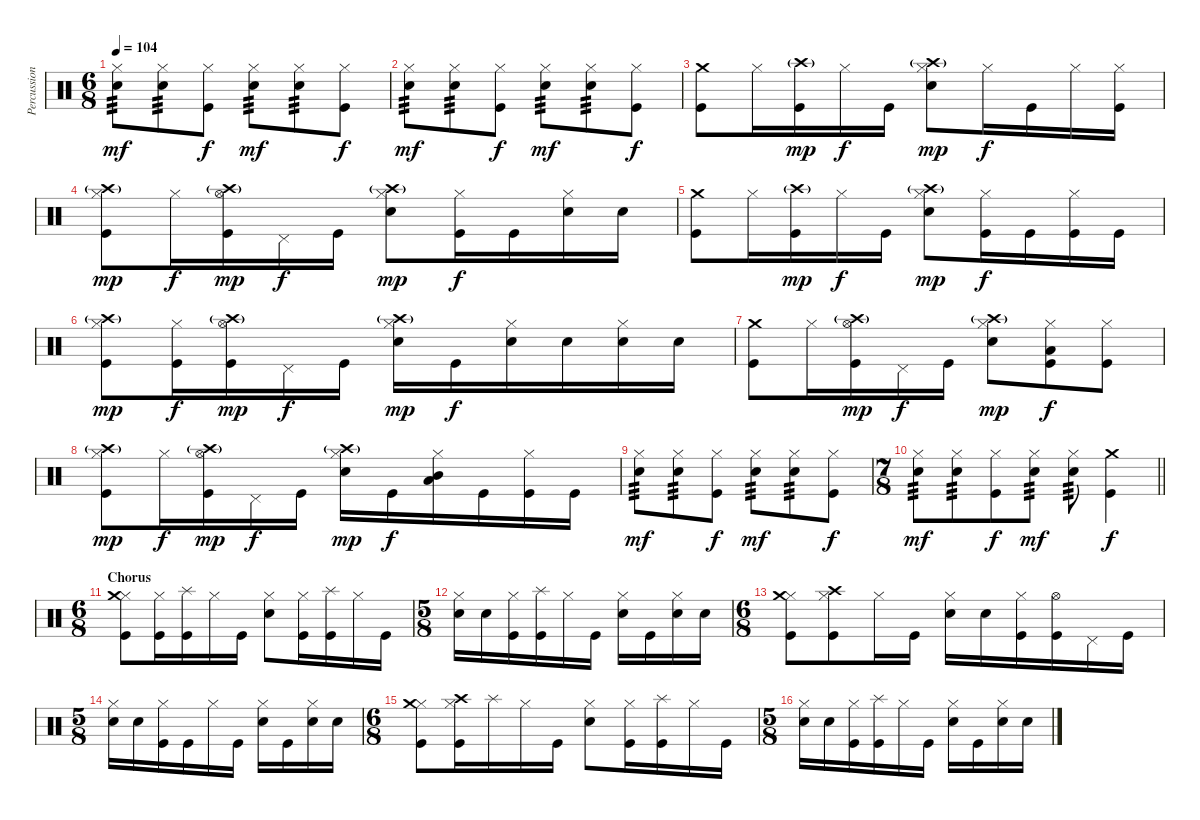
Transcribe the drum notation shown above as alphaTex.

\track ("Percussion" "Percussion") {instrument percussion}
\staff {score}
\articulation defaults
\ts (6 8)
\tempo 104
\clef neutral
\ks c
("Hi-Hat (closed)" "Snare (hit) 2").8{tp 3 dy mf} ("Hi-Hat (closed)" "Snare (hit) 2").8{tp 3} ("Hi-Hat (closed)" "Kick (hit)").8{dy f} ("Hi-Hat (closed)" "Snare (hit) 2").8{tp 3 dy mf} ("Hi-Hat (closed)" "Snare (hit) 2").8{tp 3} ("Hi-Hat (closed)" "Kick (hit)").8{dy f} |
("Hi-Hat (closed)" "Snare (hit) 2").8{tp 3 dy mf} ("Hi-Hat (closed)" "Snare (hit) 2").8{tp 3} ("Hi-Hat (closed)" "Kick (hit)").8{dy f} ("Hi-Hat (closed)" "Snare (hit) 2").8{tp 3 dy mf} ("Hi-Hat (closed)" "Snare (hit) 2").8{tp 3} ("Hi-Hat (closed)" "Kick (hit)").8{dy f} |
("Crash medium (hit)" "Kick (hit)").8 "Hi-Hat (closed)".16 ("Crash high (hit)"{g} "Kick (hit)").16{dy mp} "Hi-Hat (closed)".16{dy f} "Kick (hit)".16 ("Hi-Hat (closed)" "Crash high (hit)"{g} "Snare (hit) 2").8{dy mp} "Hi-Hat (closed)".16{dy f} "Kick (hit)".16 "Hi-Hat (closed)".16 ("Hi-Hat (closed)" "Kick (hit)").16 |
("Hi-Hat (closed)" "Crash high (hit)"{g} "Kick (hit)").8{dy mp} "Hi-Hat (closed)".16{dy f} ("Hi-Hat (open)" "Crash high (hit)"{g} "Kick (hit)").16{dy mp} "Pedal Hi-Hat (hit)".16{dy f} "Kick (hit)".16 ("Hi-Hat (closed)" "Crash high (hit)"{g} "Snare (hit) 2").8{dy mp} ("Hi-Hat (closed)" "Kick (hit)").16{dy f} "Kick (hit)".16 ("Hi-Hat (closed)" "Snare (hit) 2").16 "Snare (hit) 2".16 |
("Crash medium (hit)" "Kick (hit)").8 "Hi-Hat (closed)".16 ("Crash high (hit)"{g} "Kick (hit)").16{dy mp} "Hi-Hat (closed)".16{dy f} "Kick (hit)".16 ("Hi-Hat (closed)" "Crash high (hit)"{g} "Snare (hit) 2").8{dy mp} ("Hi-Hat (closed)" "Kick (hit)").16{dy f} "Kick (hit)".16 ("Hi-Hat (closed)" "Kick (hit)").16 "Kick (hit)".16 |
("Hi-Hat (closed)" "Crash high (hit)"{g} "Kick (hit)").8{dy mp} ("Hi-Hat (closed)" "Kick (hit)").16{dy f} ("Hi-Hat (open)" "Crash high (hit)"{g} "Kick (hit)").16{dy mp} "Pedal Hi-Hat (hit)".16{dy f} "Kick (hit)".16 ("Hi-Hat (closed)" "Crash high (hit)"{g} "Snare (hit) 2").16{dy mp} "Kick (hit)".16{dy f} ("Hi-Hat (closed)" "Snare (hit) 2").16 "Snare (hit) 2".16 ("Hi-Hat (closed)" "Snare (hit) 2").16 "Snare (hit) 2".16 |
("Crash medium (hit)" "Kick (hit)").8 "Hi-Hat (closed)".16 ("Hi-Hat (open)" "Crash high (hit)"{g} "Kick (hit)").16{dy mp} "Pedal Hi-Hat (hit)".16{dy f} "Kick (hit)".16 ("Hi-Hat (closed)" "Crash high (hit)"{g} "Snare (hit) 2").8{dy mp} ("Hi-Hat (closed)" "Low Floor Tom (hit)" "Kick (hit)").8{dy f} ("Hi-Hat (closed)" "Kick (hit)").8 |
("Hi-Hat (closed)" "Crash high (hit)"{g} "Kick (hit)").8{dy mp} "Hi-Hat (closed)".16{dy f} ("Hi-Hat (open)" "Crash high (hit)"{g} "Kick (hit)").16{dy mp} "Pedal Hi-Hat (hit)".16{dy f} "Kick (hit)".16 ("Hi-Hat (closed)" "Crash high (hit)"{g} "Snare (hit) 2").16{dy mp} "Kick (hit)".16{dy f} ("Hi-Hat (closed)" "Mid Tom (hit)" "Low Tom (hit)").16 "Kick (hit)".16 ("Hi-Hat (closed)" "Kick (hit)").16 "Kick (hit)".16 |
("Hi-Hat (closed)" "Snare (hit) 2").8{tp 3 dy mf} ("Hi-Hat (closed)" "Snare (hit) 2").8{tp 3} ("Hi-Hat (closed)" "Kick (hit)").8{dy f} ("Hi-Hat (closed)" "Snare (hit) 2").8{tp 3 dy mf} ("Hi-Hat (closed)" "Snare (hit) 2").8{tp 3} ("Hi-Hat (closed)" "Kick (hit)").8{dy f} |
\ts (7 8)
\barLineRight lightlight
("Hi-Hat (closed)" "Snare (hit) 2").8{tp 3 dy mf} ("Hi-Hat (closed)" "Snare (hit) 2").8{tp 3} ("Hi-Hat (closed)" "Kick (hit)").8{dy f} ("Hi-Hat (closed)" "Snare (hit) 2").8{tp 3 dy mf} ("Hi-Hat (closed)" "Snare (hit) 2").8{tp 3} ("Crash medium (hit)" "Kick (hit)").4{dy f} |
\ts (6 8)
\section ("" "Chorus")
("Hi-Hat (closed)" "Crash medium (hit)" "Kick (hit)").8 ("Hi-Hat (closed)" "Kick (hit)").16 ("Splash (hit)" "Kick (hit)").16 "Hi-Hat (closed)".16 "Kick (hit)".16 ("Hi-Hat (closed)" "Snare (hit) 2").8 ("Hi-Hat (closed)" "Kick (hit)").16 ("Splash (hit)" "Kick (hit)").16 "Hi-Hat (closed)".16 "Kick (hit)".16 |
\ts (5 8)
("Hi-Hat (closed)" "Snare (hit) 2").16 "Snare (hit) 2".16 ("Hi-Hat (closed)" "Kick (hit)").16 ("Splash (hit)" "Kick (hit)").16 "Hi-Hat (closed)".16 "Kick (hit)".16 ("Hi-Hat (closed)" "Snare (hit) 2").16 "Kick (hit)".16 ("Hi-Hat (closed)" "Snare (hit) 2").16 "Snare (hit) 2".16 |
\ts (6 8)
("Hi-Hat (closed)" "Crash medium (hit)" "Kick (hit)").8 ("Hi-Hat (closed)" "Crash high (hit)" "Kick (hit)").8 "Hi-Hat (closed)".16 "Kick (hit)".16 ("Hi-Hat (closed)" "Snare (hit) 2").16 "Snare (hit) 2".16 ("Hi-Hat (closed)" "Kick (hit)").16 ("Hi-Hat (open)" "Kick (hit)").16 "Pedal Hi-Hat (hit)".16 "Kick (hit)".16 |
\ts (5 8)
("Hi-Hat (closed)" "Snare (hit) 2").16 "Snare (hit) 2".16 ("Hi-Hat (closed)" "Kick (hit)").16 "Kick (hit)".16 "Hi-Hat (closed)".16 "Kick (hit)".16 ("Hi-Hat (closed)" "Snare (hit) 2").16 "Kick (hit)".16 ("Hi-Hat (closed)" "Snare (hit) 2").16 "Snare (hit) 2".16 |
\ts (6 8)
("Hi-Hat (closed)" "Crash medium (hit)" "Kick (hit)").8 ("Hi-Hat (closed)" "Crash high (hit)" "Kick (hit)").16 "Splash (hit)".16 "Hi-Hat (closed)".16 "Kick (hit)".16 ("Hi-Hat (closed)" "Snare (hit) 2").8 ("Hi-Hat (closed)" "Kick (hit)").16 ("Splash (hit)" "Kick (hit)").16 "Hi-Hat (closed)".16 "Kick (hit)".16 |
\ts (5 8)
("Hi-Hat (closed)" "Snare (hit) 2").16 "Snare (hit) 2".16 ("Hi-Hat (closed)" "Kick (hit)").16 ("Splash (hit)" "Kick (hit)").16 "Hi-Hat (closed)".16 "Kick (hit)".16 ("Hi-Hat (closed)" "Snare (hit) 2").16 "Kick (hit)".16 ("Hi-Hat (closed)" "Snare (hit) 2").16 "Snare (hit) 2".16
